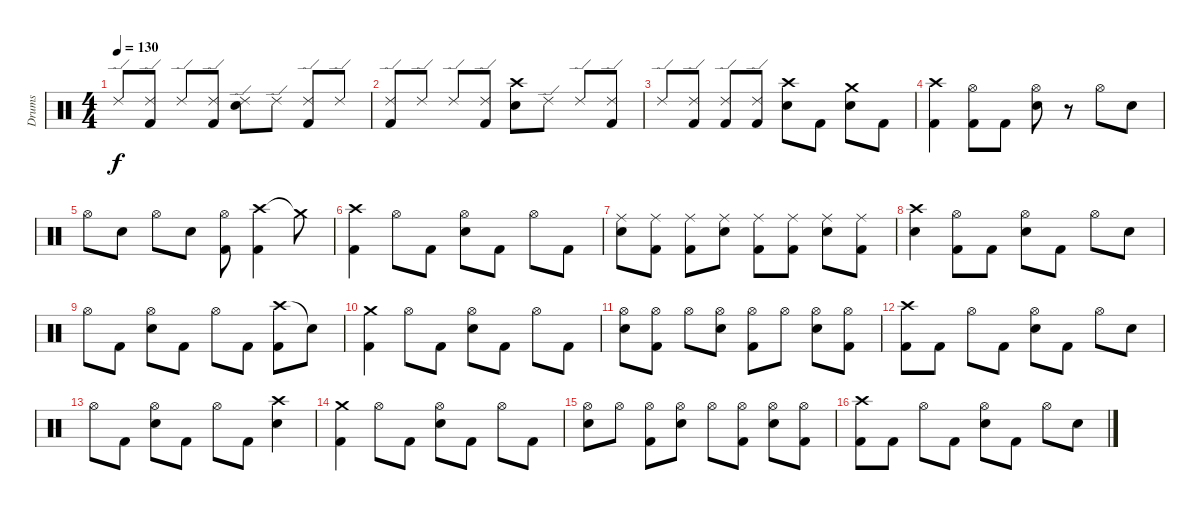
\track ("Drums" "Drums") {instrument percussion}
\staff {score}
\articulation defaults
\ts (4 4)
\tempo 130
\clef neutral
\ks c "Ride (edge) 2".8{dy f}
("Ride (edge) 2" "Kick (hit) 2").8 "Ride (edge) 2".8 ("Ride (edge) 2" "Kick (hit) 2").8 ("Ride (edge) 2" "Snare (hit) 2").8 "Ride (edge) 2".8 ("Ride (edge) 2" "Kick (hit) 2").8 "Ride (edge) 2".8 |
("Ride (edge) 2" "Kick (hit) 2").8 "Ride (edge) 2".8 "Ride (edge) 2".8 ("Ride (edge) 2" "Kick (hit) 2").8 ("Crash high (hit)" "Snare (hit) 2").8 "Ride (edge) 2".8 "Ride (edge) 2".8 ("Ride (edge) 2" "Kick (hit) 2").8 |
"Ride (edge) 2".8 ("Ride (edge) 2" "Kick (hit) 2").8 ("Ride (edge) 2" "Kick (hit) 2").8 ("Ride (edge) 2" "Kick (hit) 2").8 ("Crash high (hit)" "Snare (hit) 2").8 "Kick (hit) 2".8 ("Crash medium (hit)" "Snare (hit) 2").8 "Kick (hit) 2".8 |
("Crash high (hit)" "Kick (hit) 2").4 ("Hi-Hat (open)" "Kick (hit) 2").8 "Kick (hit) 2".8 ("Hi-Hat (open)" "Snare (hit) 2").8 r.8 "Hi-Hat (open)".8 "Snare (hit) 2".8 |
"Hi-Hat (open)".8 "Snare (hit) 2".8 "Hi-Hat (open)".8 "Snare (hit) 2".8 ("Hi-Hat (open)" "Kick (hit) 2").8 ("Crash high (hit)" "Kick (hit) 2").4 "Crash medium (hit)"{t}.8 |
("Crash high (hit)" "Kick (hit) 2").4 "Hi-Hat (open)".8 "Kick (hit) 2".8 ("Hi-Hat (open)" "Snare (hit) 2").8 "Kick (hit) 2".8 "Hi-Hat (open)".8 "Kick (hit) 2".8 |
("Ride (middle)" "Snare (hit) 2").8 ("Ride (middle)" "Kick (hit) 2").8 ("Ride (middle)" "Kick (hit) 2").8 ("Ride (middle)" "Snare (hit) 2").8 ("Ride (middle)" "Kick (hit) 2").8 ("Ride (middle)" "Kick (hit) 2").8 ("Ride (middle)" "Snare (hit) 2").8 ("Ride (middle)" "Kick (hit) 2").8 |
("Crash high (hit)" "Snare (hit) 2").4 ("Hi-Hat (open)" "Kick (hit) 2").8 "Kick (hit) 2".8 ("Hi-Hat (open)" "Snare (hit) 2").8 "Kick (hit) 2".8 "Hi-Hat (open)".8 "Snare (hit) 2".8 |
"Hi-Hat (open)".8 "Kick (hit) 2".8 ("Hi-Hat (open)" "Snare (hit) 2").8 "Kick (hit) 2".8 "Hi-Hat (open)".8 "Kick (hit) 2".8 ("Crash high (hit)" "Kick (hit) 2").8 "Snare (hit)"{t}.8 |
("Crash medium (hit)" "Kick (hit) 2").4 "Hi-Hat (open)".8 "Kick (hit) 2".8 ("Hi-Hat (open)" "Snare (hit) 2").8 "Kick (hit) 2".8 "Hi-Hat (open)".8 "Kick (hit) 2".8 |
("Hi-Hat (open)" "Snare (hit) 2").8 ("Hi-Hat (open)" "Kick (hit) 2").8 "Hi-Hat (open)".8 ("Hi-Hat (open)" "Snare (hit) 2").8 ("Hi-Hat (open)" "Kick (hit) 2").8 "Hi-Hat (open)".8 ("Hi-Hat (open)" "Snare (hit) 2").8 ("Hi-Hat (open)" "Kick (hit) 2").8 |
("Crash high (hit)" "Kick (hit) 2").8 "Kick (hit) 2".8 "Hi-Hat (open)".8 "Kick (hit) 2".8 ("Hi-Hat (open)" "Snare (hit) 2").8 "Kick (hit) 2".8 "Hi-Hat (open)".8 "Snare (hit) 2".8 |
"Hi-Hat (open)".8 "Kick (hit) 2".8 ("Hi-Hat (open)" "Snare (hit) 2").8 "Kick (hit) 2".8 "Hi-Hat (open)".8 "Kick (hit) 2".8 ("Crash high (hit)" "Snare (hit) 2").4 |
("Crash medium (hit)" "Kick (hit) 2").4 "Hi-Hat (open)".8 "Kick (hit) 2".8 ("Hi-Hat (open)" "Snare (hit) 2").8 "Kick (hit) 2".8 "Hi-Hat (open)".8 "Kick (hit) 2".8 |
("Hi-Hat (open)" "Snare (hit) 2").8 "Hi-Hat (open)".8 ("Hi-Hat (open)" "Kick (hit) 2").8 ("Hi-Hat (open)" "Snare (hit) 2").8 "Hi-Hat (open)".8 ("Hi-Hat (open)" "Kick (hit) 2").8 ("Hi-Hat (open)" "Snare (hit) 2").8 ("Hi-Hat (open)" "Kick (hit) 2").8 |
("Crash high (hit)" "Kick (hit) 2").8 "Kick (hit) 2".8 "Hi-Hat (open)".8 "Kick (hit) 2".8 ("Hi-Hat (open)" "Snare (hit) 2").8 "Kick (hit) 2".8 "Hi-Hat (open)".8 "Snare (hit) 2".8
